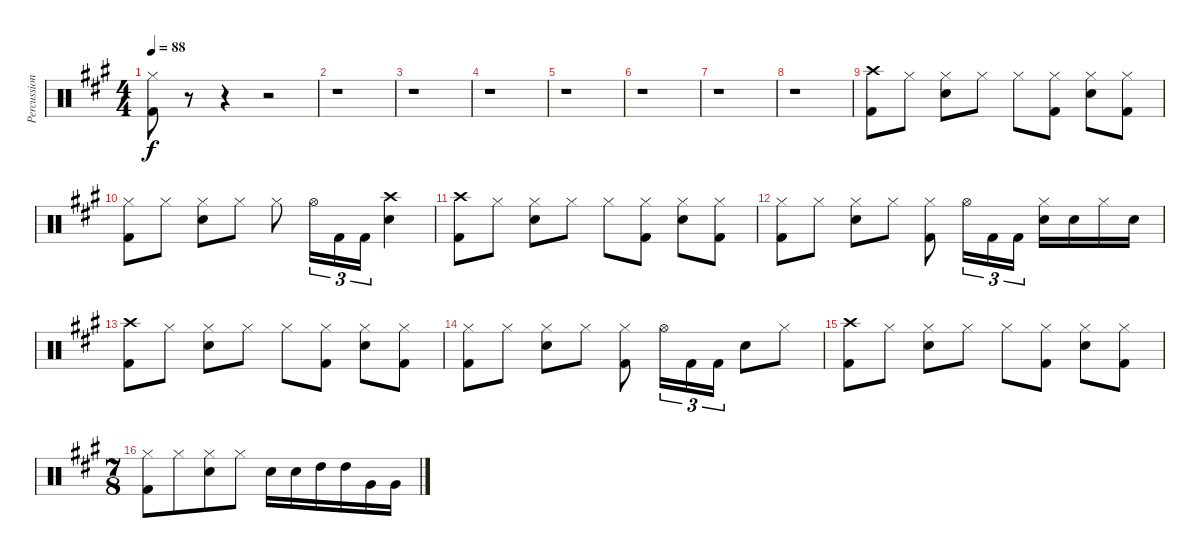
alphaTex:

\track ("Percussion" "Percussion") {instrument percussion}
\staff {score}
\articulation defaults
\ts (4 4)
\tempo 88
\clef neutral
\ks a
("Hi-Hat (closed)" "Kick (hit) 2").8{dy f} r.8 r.4 r.2 |
r.1 |
r.1 |
r.1 |
r.1 |
r.1 |
r.1 |
r.1 |
("Crash high (hit)" "Kick (hit) 2").8 "Hi-Hat (closed)".8 ("Hi-Hat (closed)" "Snare (hit) 2").8 "Hi-Hat (closed)".8 "Hi-Hat (closed)".8 ("Hi-Hat (closed)" "Kick (hit) 2").8 ("Hi-Hat (closed)" "Snare (hit) 2").8 ("Hi-Hat (closed)" "Kick (hit) 2").8 |
("Hi-Hat (closed)" "Kick (hit) 2").8 "Hi-Hat (closed)".8 ("Hi-Hat (closed)" "Snare (hit) 2").8 "Hi-Hat (closed)".8 "Hi-Hat (closed)".8 "Hi-Hat (open)".16{tu (3 2)} "Kick (hit) 2".16{tu (3 2)} "Kick (hit) 2".16{tu (3 2)} ("Crash high (hit)" "Snare (hit) 2").4 |
("Crash high (hit)" "Kick (hit) 2").8 "Hi-Hat (closed)".8 ("Hi-Hat (closed)" "Snare (hit) 2").8 "Hi-Hat (closed)".8 "Hi-Hat (closed)".8 ("Hi-Hat (closed)" "Kick (hit) 2").8 ("Hi-Hat (closed)" "Snare (hit) 2").8 ("Hi-Hat (closed)" "Kick (hit) 2").8 |
("Hi-Hat (closed)" "Kick (hit) 2").8 "Hi-Hat (closed)".8 ("Hi-Hat (closed)" "Snare (hit) 2").8 "Hi-Hat (closed)".8 ("Hi-Hat (closed)" "Kick (hit) 2").8 "Hi-Hat (open)".16{tu (3 2)} "Kick (hit) 2".16{tu (3 2)} "Kick (hit) 2".16{tu (3 2)} ("Hi-Hat (closed)" "Snare (hit) 2").16 "Snare (hit) 2".16 "Hi-Hat (closed)".16 "Snare (hit) 2".16 |
("Crash high (hit)" "Kick (hit) 2").8 "Hi-Hat (closed)".8 ("Hi-Hat (closed)" "Snare (hit) 2").8 "Hi-Hat (closed)".8 "Hi-Hat (closed)".8 ("Hi-Hat (closed)" "Kick (hit) 2").8 ("Hi-Hat (closed)" "Snare (hit) 2").8 ("Hi-Hat (closed)" "Kick (hit) 2").8 |
("Hi-Hat (closed)" "Kick (hit) 2").8 "Hi-Hat (closed)".8 ("Hi-Hat (closed)" "Snare (hit) 2").8 "Hi-Hat (closed)".8 ("Hi-Hat (closed)" "Kick (hit) 2").8 "Hi-Hat (open)".16{tu (3 2)} "Kick (hit) 2".16{tu (3 2)} "Kick (hit) 2".16{tu (3 2)} "Snare (hit) 2".8 "Hi-Hat (closed)".8 |
("Crash high (hit)" "Kick (hit) 2").8 "Hi-Hat (closed)".8 ("Hi-Hat (closed)" "Snare (hit) 2").8 "Hi-Hat (closed)".8 "Hi-Hat (closed)".8 ("Hi-Hat (closed)" "Kick (hit) 2").8 ("Hi-Hat (closed)" "Snare (hit) 2").8 ("Hi-Hat (closed)" "Kick (hit) 2").8 |
\ts (7 8)
("Hi-Hat (closed)" "Kick (hit) 2").8 "Hi-Hat (closed)".8 ("Hi-Hat (closed)" "Snare (hit) 2").8 "Hi-Hat (closed)".8 "Snare (hit) 2".16 "Snare (hit) 2".16 "High Tom (hit)".16 "High Tom (hit)".16 "Very Low Tom (hit)".16 "Very Low Tom (hit)".16
